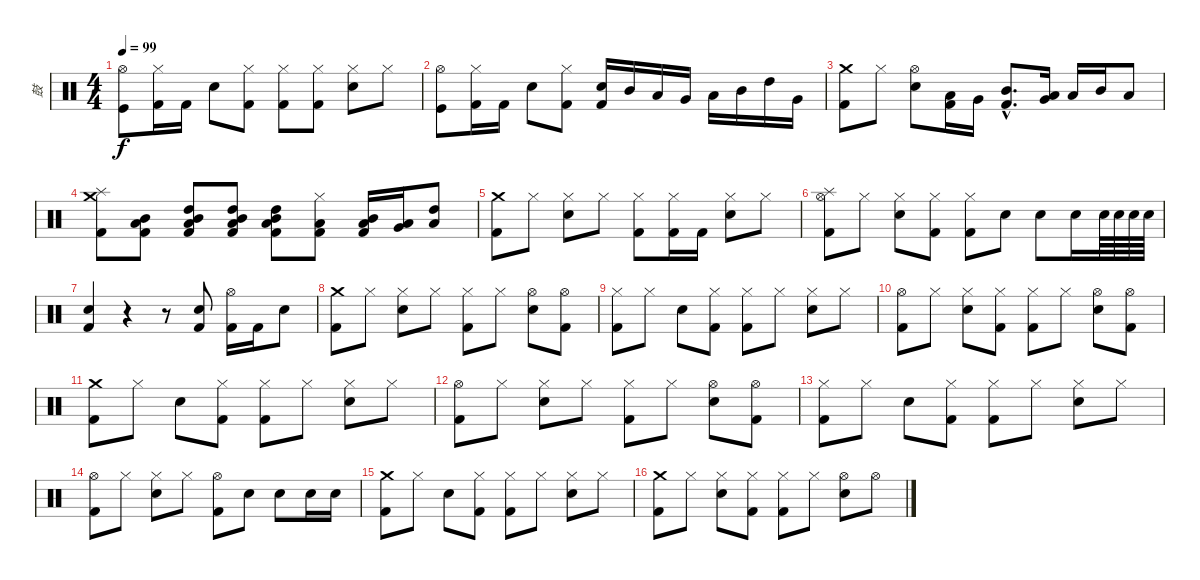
\track ("鼓" "鼓") {instrument percussion}
\staff {score}
\articulation defaults
\ts (4 4)
\tempo 99
\clef neutral
\ks c
("Hi-Hat (open)" "Kick (hit)").8{dy f} ("Hi-Hat (closed)" "Kick (hit) 2").16 "Kick (hit) 2".16 "Electric Snare (hit)".8 ("Hi-Hat (closed)" "Kick (hit) 2").8 ("Hi-Hat (closed)" "Kick (hit) 2").8 ("Hi-Hat (closed)" "Kick (hit) 2").8 ("Hi-Hat (closed)" "Electric Snare (hit)").8 "Hi-Hat (closed)".8 |
("Hi-Hat (open)" "Kick (hit)").8 ("Hi-Hat (closed)" "Kick (hit) 2").16 "Kick (hit) 2".16 "Electric Snare (hit)".8 ("Hi-Hat (closed)" "Kick (hit) 2").8 ("Electric Snare (hit)" "Kick (hit) 2").16 "Mid Tom (hit)".16 "Low Tom (hit)".16 "Very Low Tom (hit)".16 "Low Tom (hit)".16 "Mid Tom (hit)".16 "High Tom (hit)".16 "Very Low Tom (hit)".16 |
("Crash medium (hit)" "Kick (hit) 2").8 "Hi-Hat (closed)".8 ("Hi-Hat (open)" "Electric Snare (hit)").8 ("Low Tom (hit)" "Kick (hit) 2").16 "Very Low Tom (hit)".16 ("Mid Tom (hit)"{hac} "Kick (hit) 2"{hac}).8{d} ("Very Low Tom (hit)" "Low Tom (hit)").16 "Low Tom (hit)".16 "Mid Tom (hit)".16 "Low Floor Tom (hit)".8 |
("Splash (hit)" "Crash medium (hit)" "Kick (hit) 2").8 ("Mid Tom (hit)" "Low Tom (hit)" "Kick (hit) 2").8 ("Mid Tom (hit)" "High Tom (hit)" "Low Tom (hit)" "Kick (hit) 2").8 ("Mid Tom (hit)" "High Tom (hit)" "Low Tom (hit)" "Kick (hit) 2").8 ("Mid Tom (hit)" "High Tom (hit)" "Low Tom (hit)" "Kick (hit) 2").8 ("Hi-Hat (closed)" "Low Tom (hit)" "Kick (hit) 2").8 ("Mid Tom (hit)" "Low Tom (hit)" "Kick (hit) 2").16 ("Low Tom (hit)" "Very Low Tom (hit)").16 ("High Tom (hit)" "Low Floor Tom (hit)").8 |
("Crash medium (hit)" "Kick (hit) 2").8 "Hi-Hat (closed)".8 ("Hi-Hat (closed)" "Electric Snare (hit)").8 "Hi-Hat (closed)".8 ("Hi-Hat (closed)" "Kick (hit) 2").8 ("Hi-Hat (closed)" "Kick (hit) 2").16 "Kick (hit) 2".16 ("Hi-Hat (closed)" "Electric Snare (hit)").8 "Hi-Hat (closed)".8 |
("Hi-Hat (open)" "Splash (hit)" "Kick (hit) 2").8 "Hi-Hat (closed)".8 ("Hi-Hat (closed)" "Electric Snare (hit)").8 ("Hi-Hat (closed)" "Kick (hit) 2").8 ("Hi-Hat (closed)" "Kick (hit) 2").8 "Electric Snare (hit)".8 "Electric Snare (hit)".8 "Electric Snare (hit)".16 "Electric Snare (hit)".64 "Electric Snare (hit)".64 "Electric Snare (hit)".64 "Electric Snare (hit)".64 |
("Electric Snare (hit)" "Kick (hit) 2").4 r.4 r.8 ("Electric Snare (hit)" "Kick (hit) 2").8 ("Hi-Hat (open)" "Kick (hit) 2").16 "Kick (hit) 2".16 "Electric Snare (hit)".8 |
("Crash medium (hit)" "Kick (hit) 2").8 "Hi-Hat (closed)".8 ("Hi-Hat (closed)" "Electric Snare (hit)").8 "Hi-Hat (closed)".8 ("Hi-Hat (closed)" "Kick (hit) 2").8 "Hi-Hat (closed)".8 ("Hi-Hat (open)" "Electric Snare (hit)").8 ("Hi-Hat (open)" "Kick (hit) 2").8 |
("Hi-Hat (closed)" "Kick (hit) 2").8 "Hi-Hat (closed)".8 "Electric Snare (hit)".8 ("Hi-Hat (closed)" "Kick (hit) 2").8 ("Hi-Hat (closed)" "Kick (hit) 2").8 "Hi-Hat (closed)".8 ("Hi-Hat (closed)" "Electric Snare (hit)").8 "Hi-Hat (closed)".8 |
("Hi-Hat (open)" "Kick (hit) 2").8 "Hi-Hat (closed)".8 ("Hi-Hat (closed)" "Electric Snare (hit)").8 ("Hi-Hat (closed)" "Kick (hit) 2").8 ("Hi-Hat (closed)" "Kick (hit) 2").8 "Hi-Hat (closed)".8 ("Hi-Hat (open)" "Electric Snare (hit)").8 ("Hi-Hat (open)" "Kick (hit) 2").8 |
("Crash medium (hit)" "Kick (hit) 2").8 "Hi-Hat (closed)".8 "Electric Snare (hit)".8 ("Hi-Hat (closed)" "Kick (hit) 2").8 ("Hi-Hat (closed)" "Kick (hit) 2").8 "Hi-Hat (closed)".8 ("Hi-Hat (closed)" "Electric Snare (hit)").8 "Hi-Hat (closed)".8 |
("Hi-Hat (open)" "Kick (hit) 2").8 "Hi-Hat (closed)".8 ("Hi-Hat (closed)" "Electric Snare (hit)").8 "Hi-Hat (closed)".8 ("Hi-Hat (closed)" "Kick (hit) 2").8 "Hi-Hat (closed)".8 ("Hi-Hat (open)" "Electric Snare (hit)").8 ("Hi-Hat (open)" "Kick (hit) 2").8 |
("Hi-Hat (closed)" "Kick (hit) 2").8 "Hi-Hat (closed)".8 "Electric Snare (hit)".8 ("Hi-Hat (closed)" "Kick (hit) 2").8 ("Hi-Hat (closed)" "Kick (hit) 2").8 "Hi-Hat (closed)".8 ("Hi-Hat (closed)" "Electric Snare (hit)").8 "Hi-Hat (closed)".8 |
("Hi-Hat (open)" "Kick (hit) 2").8 "Hi-Hat (closed)".8 ("Hi-Hat (closed)" "Electric Snare (hit)").8 "Hi-Hat (closed)".8 ("Hi-Hat (open)" "Kick (hit) 2").8 "Electric Snare (hit)".8 "Electric Snare (hit)".8 "Electric Snare (hit)".16 "Electric Snare (hit)".16 |
("Crash medium (hit)" "Kick (hit) 2").8 "Hi-Hat (closed)".8 "Electric Snare (hit)".8 ("Hi-Hat (closed)" "Kick (hit) 2").8 ("Hi-Hat (closed)" "Kick (hit) 2").8 "Hi-Hat (closed)".8 ("Hi-Hat (closed)" "Electric Snare (hit)").8 "Hi-Hat (closed)".8 |
("Crash medium (hit)" "Kick (hit) 2").8 "Hi-Hat (closed)".8 ("Hi-Hat (closed)" "Electric Snare (hit)").8 ("Hi-Hat (closed)" "Kick (hit) 2").8 ("Hi-Hat (closed)" "Kick (hit) 2").8 "Hi-Hat (closed)".8 ("Hi-Hat (open)" "Electric Snare (hit)").8 "Hi-Hat (open)".8
